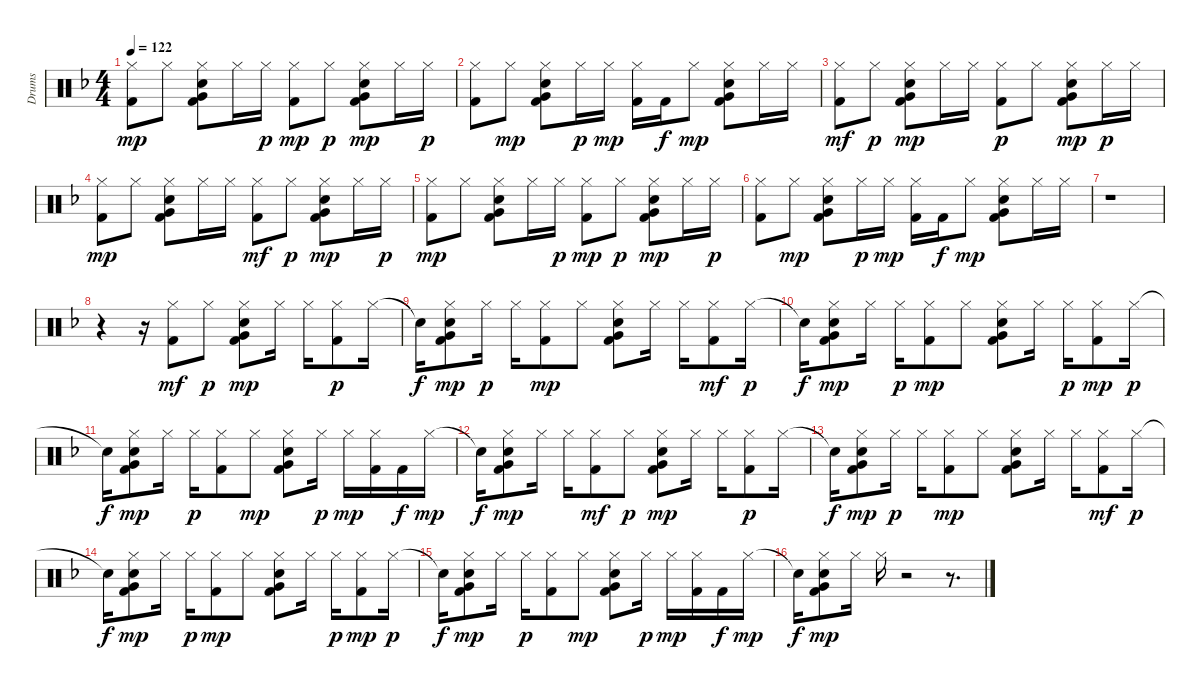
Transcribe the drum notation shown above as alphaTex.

\track ("Drums" "Drums") {instrument percussion}
\staff {score}
\articulation defaults
\ts (4 4)
\tempo 122
\clef neutral
\ks f
("Kick (hit) 2" "Hi-Hat (closed)").8{dy mp} "Hi-Hat (closed)".8 ("Kick (hit) 2" "Snare (hit) 2" "Hi-Hat (closed)" "Very Low Tom (hit)").8 "Hi-Hat (closed)".16 "Hi-Hat (closed)".16{dy p} ("Kick (hit) 2" "Hi-Hat (closed)").8{dy mp} "Hi-Hat (closed)".8{dy p} ("Kick (hit) 2" "Snare (hit) 2" "Hi-Hat (closed)" "Very Low Tom (hit)").8{dy mp} "Hi-Hat (closed)".16 "Hi-Hat (closed)".16{dy p} |
("Kick (hit) 2" "Hi-Hat (closed)").8 "Hi-Hat (closed)".8{dy mp} ("Kick (hit) 2" "Snare (hit) 2" "Hi-Hat (closed)" "Very Low Tom (hit)").8 "Hi-Hat (closed)".16{dy p} "Hi-Hat (closed)".16{dy mp} ("Kick (hit) 2" "Hi-Hat (closed)").16 "Kick (hit) 2".16{dy f} "Hi-Hat (closed)".8{dy mp} ("Kick (hit) 2" "Snare (hit) 2" "Hi-Hat (closed)" "Very Low Tom (hit)").8 "Hi-Hat (closed)".16 "Hi-Hat (closed)".16 |
("Kick (hit) 2" "Hi-Hat (closed)").8{dy mf} "Hi-Hat (closed)".8{dy p} ("Kick (hit) 2" "Snare (hit) 2" "Hi-Hat (closed)" "Very Low Tom (hit)").8{dy mp} "Hi-Hat (closed)".16 "Hi-Hat (closed)".16 ("Kick (hit) 2" "Hi-Hat (closed)").8{dy p} "Hi-Hat (closed)".8 ("Kick (hit) 2" "Snare (hit) 2" "Hi-Hat (closed)" "Very Low Tom (hit)").8{dy mp} "Hi-Hat (closed)".16{dy p} "Hi-Hat (closed)".16 |
("Kick (hit) 2" "Hi-Hat (closed)").8{dy mp} "Hi-Hat (closed)".8 ("Kick (hit) 2" "Snare (hit) 2" "Hi-Hat (closed)" "Very Low Tom (hit)").8 "Hi-Hat (closed)".16 "Hi-Hat (closed)".16 ("Kick (hit) 2" "Hi-Hat (closed)").8{dy mf} "Hi-Hat (closed)".8{dy p} ("Kick (hit) 2" "Snare (hit) 2" "Hi-Hat (closed)" "Very Low Tom (hit)").8{dy mp} "Hi-Hat (closed)".16 "Hi-Hat (closed)".16{dy p} |
("Kick (hit) 2" "Hi-Hat (closed)").8{dy mp} "Hi-Hat (closed)".8 ("Kick (hit) 2" "Snare (hit) 2" "Hi-Hat (closed)" "Very Low Tom (hit)").8 "Hi-Hat (closed)".16 "Hi-Hat (closed)".16{dy p} ("Kick (hit) 2" "Hi-Hat (closed)").8{dy mp} "Hi-Hat (closed)".8{dy p} ("Kick (hit) 2" "Snare (hit) 2" "Hi-Hat (closed)" "Very Low Tom (hit)").8{dy mp} "Hi-Hat (closed)".16 "Hi-Hat (closed)".16{dy p} |
("Kick (hit) 2" "Hi-Hat (closed)").8 "Hi-Hat (closed)".8{dy mp} ("Kick (hit) 2" "Snare (hit) 2" "Hi-Hat (closed)" "Very Low Tom (hit)").8 "Hi-Hat (closed)".16{dy p} "Hi-Hat (closed)".16{dy mp} ("Kick (hit) 2" "Hi-Hat (closed)").16 "Kick (hit) 2".16{dy f} "Hi-Hat (closed)".8{dy mp} ("Kick (hit) 2" "Snare (hit) 2" "Hi-Hat (closed)" "Very Low Tom (hit)").8 "Hi-Hat (closed)".16 "Hi-Hat (closed)".16 |
r.1 |
r.4 r.16 ("Kick (hit) 2" "Hi-Hat (closed)").8{dy mf} "Hi-Hat (closed)".8{dy p} ("Kick (hit) 2" "Snare (hit) 2" "Hi-Hat (closed)" "Very Low Tom (hit)").8{dy mp} "Hi-Hat (closed)".16 "Hi-Hat (closed)".16 ("Kick (hit) 2" "Hi-Hat (closed)").8{dy p} "Hi-Hat (closed)".16 |
"Snare (hit)"{t}.16{dy f} ("Kick (hit) 2" "Snare (hit) 2" "Hi-Hat (closed)" "Very Low Tom (hit)").8{dy mp} "Hi-Hat (closed)".16{dy p} "Hi-Hat (closed)".16 ("Kick (hit) 2" "Hi-Hat (closed)").8{dy mp} "Hi-Hat (closed)".8 ("Kick (hit) 2" "Snare (hit) 2" "Hi-Hat (closed)" "Very Low Tom (hit)").8 "Hi-Hat (closed)".16 "Hi-Hat (closed)".16 ("Kick (hit) 2" "Hi-Hat (closed)").8{dy mf} "Hi-Hat (closed)".16{dy p} |
"Snare (hit)"{t}.16{dy f} ("Kick (hit) 2" "Snare (hit) 2" "Hi-Hat (closed)" "Very Low Tom (hit)").8{dy mp} "Hi-Hat (closed)".16 "Hi-Hat (closed)".16{dy p} ("Kick (hit) 2" "Hi-Hat (closed)").8{dy mp} "Hi-Hat (closed)".8 ("Kick (hit) 2" "Snare (hit) 2" "Hi-Hat (closed)" "Very Low Tom (hit)").8 "Hi-Hat (closed)".16 "Hi-Hat (closed)".16{dy p} ("Kick (hit) 2" "Hi-Hat (closed)").8{dy mp} "Hi-Hat (closed)".16{dy p} |
"Snare (hit)"{t}.16{dy f} ("Kick (hit) 2" "Snare (hit) 2" "Hi-Hat (closed)" "Very Low Tom (hit)").8{dy mp} "Hi-Hat (closed)".16 "Hi-Hat (closed)".16{dy p} ("Kick (hit) 2" "Hi-Hat (closed)").8 "Hi-Hat (closed)".8{dy mp} ("Kick (hit) 2" "Snare (hit) 2" "Hi-Hat (closed)" "Very Low Tom (hit)").8 "Hi-Hat (closed)".16{dy p} "Hi-Hat (closed)".16{dy mp} ("Kick (hit) 2" "Hi-Hat (closed)").16 "Kick (hit) 2".16{dy f} "Hi-Hat (closed)".16{dy mp} |
"Snare (hit)"{t}.16{dy f} ("Kick (hit) 2" "Snare (hit) 2" "Hi-Hat (closed)" "Very Low Tom (hit)").8{dy mp} "Hi-Hat (closed)".16 "Hi-Hat (closed)".16 ("Kick (hit) 2" "Hi-Hat (closed)").8{dy mf} "Hi-Hat (closed)".8{dy p} ("Kick (hit) 2" "Snare (hit) 2" "Hi-Hat (closed)" "Very Low Tom (hit)").8{dy mp} "Hi-Hat (closed)".16 "Hi-Hat (closed)".16 ("Kick (hit) 2" "Hi-Hat (closed)").8{dy p} "Hi-Hat (closed)".16 |
"Snare (hit)"{t}.16{dy f} ("Kick (hit) 2" "Snare (hit) 2" "Hi-Hat (closed)" "Very Low Tom (hit)").8{dy mp} "Hi-Hat (closed)".16{dy p} "Hi-Hat (closed)".16 ("Kick (hit) 2" "Hi-Hat (closed)").8{dy mp} "Hi-Hat (closed)".8 ("Kick (hit) 2" "Snare (hit) 2" "Hi-Hat (closed)" "Very Low Tom (hit)").8 "Hi-Hat (closed)".16 "Hi-Hat (closed)".16 ("Kick (hit) 2" "Hi-Hat (closed)").8{dy mf} "Hi-Hat (closed)".16{dy p} |
"Snare (hit)"{t}.16{dy f} ("Kick (hit) 2" "Snare (hit) 2" "Hi-Hat (closed)" "Very Low Tom (hit)").8{dy mp} "Hi-Hat (closed)".16 "Hi-Hat (closed)".16{dy p} ("Kick (hit) 2" "Hi-Hat (closed)").8{dy mp} "Hi-Hat (closed)".8 ("Kick (hit) 2" "Snare (hit) 2" "Hi-Hat (closed)" "Very Low Tom (hit)").8 "Hi-Hat (closed)".16 "Hi-Hat (closed)".16{dy p} ("Kick (hit) 2" "Hi-Hat (closed)").8{dy mp} "Hi-Hat (closed)".16{dy p} |
"Snare (hit)"{t}.16{dy f} ("Kick (hit) 2" "Snare (hit) 2" "Hi-Hat (closed)" "Very Low Tom (hit)").8{dy mp} "Hi-Hat (closed)".16 "Hi-Hat (closed)".16{dy p} ("Kick (hit) 2" "Hi-Hat (closed)").8 "Hi-Hat (closed)".8{dy mp} ("Kick (hit) 2" "Snare (hit) 2" "Hi-Hat (closed)" "Very Low Tom (hit)").8 "Hi-Hat (closed)".16{dy p} "Hi-Hat (closed)".16{dy mp} ("Kick (hit) 2" "Hi-Hat (closed)").16 "Kick (hit) 2".16{dy f} "Hi-Hat (closed)".16{dy mp} |
"Snare (hit)"{t}.16{dy f} ("Kick (hit) 2" "Snare (hit) 2" "Hi-Hat (closed)" "Very Low Tom (hit)").8{dy mp} "Hi-Hat (closed)".16 "Hi-Hat (closed)".16 r.2 r.8{d}
